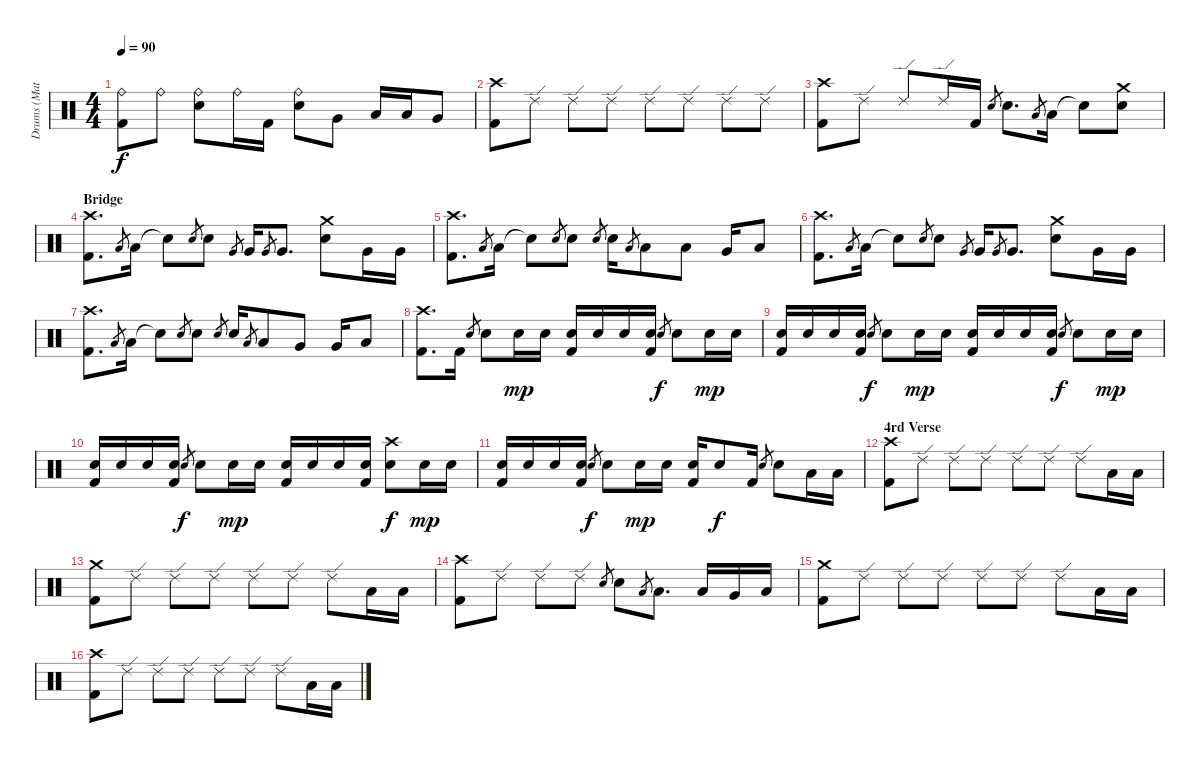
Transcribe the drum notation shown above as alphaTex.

\track ("Drums (Matt)" "Drums (Mat") {instrument percussion}
\staff {score}
\articulation defaults
\ts (4 4)
\tempo 90
\clef neutral
\ks c
("Ride (bell)" "Kick (hit) 2").8{dy f} "Ride (bell)".8 ("Ride (bell)" "Snare (hit) 2").8 "Ride (bell)".16 "Kick (hit) 2".16 ("Ride (bell)" "Snare (hit) 2").8 "Very Low Tom (hit)".8 "Low Tom (hit)".16 "Low Tom (hit)".16 "Very Low Tom (hit)".8 |
("Crash high (hit)" "Kick (hit) 2").8 "Ride (edge) 2".8 "Ride (edge) 2".8 "Ride (edge) 2".8 "Ride (edge) 2".8 "Ride (edge) 2".8 "Ride (edge) 2".8 "Ride (edge) 2".8 |
("Crash high (hit)" "Kick (hit) 2").8 "Ride (edge) 2".8 "Ride (edge) 2".8 "Ride (edge) 2".16 "Kick (hit) 2".16 "Snare (hit) 2".8{gr} "Snare (hit) 2".8{d} "Low Tom (hit)".8{gr} "Low Tom (hit)".16 "Snare (hit)"{t}.8 ("Crash medium (hit)" "Snare (hit) 2").8 |
\section ("" "Bridge")
("Crash high (hit)" "Kick (hit) 2").8{d} "Low Tom (hit)".8{gr} "Low Tom (hit)".16 "Snare (hit)"{t}.8 "Snare (hit) 2".8{gr} "Snare (hit) 2".8 "Very Low Tom (hit)".8{gr} "Very Low Tom (hit)".16 "Very Low Tom (hit)".8{gr} "Very Low Tom (hit)".8{d} ("Crash medium (hit)" "Snare (hit) 2").8 "Very Low Tom (hit)".16 "Very Low Tom (hit)".16 |
("Crash high (hit)" "Kick (hit) 2").8{d} "Low Tom (hit)".8{gr} "Low Tom (hit)".16 "Snare (hit)"{t}.8 "Snare (hit) 2".8{gr} "Snare (hit) 2".8 "Snare (hit) 2".8{gr} "Snare (hit) 2".16 "Low Tom (hit)".8{gr} "Low Tom (hit)".8 "Low Tom (hit)".8 "Very Low Tom (hit)".16 "Low Floor Tom (hit)".8 |
("Crash high (hit)" "Kick (hit) 2").8{d} "Low Tom (hit)".8{gr} "Low Tom (hit)".16 "Snare (hit)"{t}.8 "Snare (hit) 2".8{gr} "Snare (hit) 2".8 "Very Low Tom (hit)".8{gr} "Very Low Tom (hit)".16 "Very Low Tom (hit)".8{gr} "Very Low Tom (hit)".8{d} ("Crash medium (hit)" "Snare (hit) 2").8 "Very Low Tom (hit)".16 "Very Low Tom (hit)".16 |
("Crash high (hit)" "Kick (hit) 2").8{d} "Low Tom (hit)".8{gr} "Low Tom (hit)".16 "Snare (hit)"{t}.8 "Snare (hit) 2".8{gr} "Snare (hit) 2".8 "Snare (hit) 2".8{gr} "Snare (hit) 2".16 "Low Tom (hit)".8{gr} "Low Tom (hit)".8 "Very Low Tom (hit)".8 "Very Low Tom (hit)".16 "Low Floor Tom (hit)".8 |
("Crash high (hit)" "Kick (hit) 2").8{d} "Kick (hit) 2".16 "Snare (hit) 2".8{gr} "Snare (hit) 2".8 "Snare (hit) 2".16{dy mp} "Snare (hit) 2".16 ("Snare (hit) 2" "Kick (hit) 2").16 "Snare (hit) 2".16 "Snare (hit) 2".16 ("Snare (hit) 2" "Kick (hit) 2").16 "Snare (hit) 2".8{gr dy f} "Snare (hit) 2".8 "Snare (hit) 2".16{dy mp} "Snare (hit) 2".16 |
("Snare (hit) 2" "Kick (hit) 2").16 "Snare (hit) 2".16 "Snare (hit) 2".16 ("Snare (hit) 2" "Kick (hit) 2").16 "Snare (hit) 2".8{gr dy f} "Snare (hit) 2".8 "Snare (hit) 2".16{dy mp} "Snare (hit) 2".16 ("Snare (hit) 2" "Kick (hit) 2").16 "Snare (hit) 2".16 "Snare (hit) 2".16 ("Snare (hit) 2" "Kick (hit) 2").16 "Snare (hit) 2".8{gr dy f} "Snare (hit) 2".8 "Snare (hit) 2".16{dy mp} "Snare (hit) 2".16 |
("Snare (hit) 2" "Kick (hit) 2").16 "Snare (hit) 2".16 "Snare (hit) 2".16 ("Snare (hit) 2" "Kick (hit) 2").16 "Snare (hit) 2".8{gr dy f} "Snare (hit) 2".8 "Snare (hit) 2".16{dy mp} "Snare (hit) 2".16 ("Snare (hit) 2" "Kick (hit) 2").16 "Snare (hit) 2".16 "Snare (hit) 2".16 ("Snare (hit) 2" "Kick (hit) 2").16 ("Crash high (hit)" "Snare (hit) 2").8{dy f} "Snare (hit) 2".16{dy mp} "Snare (hit) 2".16 |
("Snare (hit) 2" "Kick (hit) 2").16 "Snare (hit) 2".16 "Snare (hit) 2".16 ("Snare (hit) 2" "Kick (hit) 2").16 "Snare (hit) 2".8{gr dy f} "Snare (hit) 2".8 "Snare (hit) 2".16{dy mp} "Snare (hit) 2".16 ("Snare (hit) 2" "Kick (hit) 2").16 "Snare (hit) 2".8{dy f} "Kick (hit) 2".16 "Snare (hit) 2".8{gr} "Snare (hit) 2".8 "Low Tom (hit)".16 "Low Tom (hit)".16 |
\section ("" "4rd Verse")
("Crash high (hit)" "Kick (hit) 2").8 "Ride (edge) 2".8 "Ride (edge) 2".8 "Ride (edge) 2".8 "Ride (edge) 2".8 "Ride (edge) 2".8 "Ride (edge) 2".8 "Low Tom (hit)".16 "Low Tom (hit)".16 |
("Crash medium (hit)" "Kick (hit) 2").8 "Ride (edge) 2".8 "Ride (edge) 2".8 "Ride (edge) 2".8 "Ride (edge) 2".8 "Ride (edge) 2".8 "Ride (edge) 2".8 "Low Tom (hit)".16 "Low Tom (hit)".16 |
("Crash high (hit)" "Kick (hit) 2").8 "Ride (edge) 2".8 "Ride (edge) 2".8 "Ride (edge) 2".8 "Snare (hit) 2".8{gr} "Snare (hit) 2".8 "Low Tom (hit)".8{gr} "Low Tom (hit)".8{d} "Low Tom (hit)".16 "Very Low Tom (hit)".16 "Low Floor Tom (hit)".16 |
("Crash medium (hit)" "Kick (hit) 2").8 "Ride (edge) 2".8 "Ride (edge) 2".8 "Ride (edge) 2".8 "Ride (edge) 2".8 "Ride (edge) 2".8 "Ride (edge) 2".8 "Low Tom (hit)".16 "Low Tom (hit)".16 |
("Crash high (hit)" "Kick (hit) 2").8 "Ride (edge) 2".8 "Ride (edge) 2".8 "Ride (edge) 2".8 "Ride (edge) 2".8 "Ride (edge) 2".8 "Ride (edge) 2".8 "Low Tom (hit)".16 "Low Tom (hit)".16
